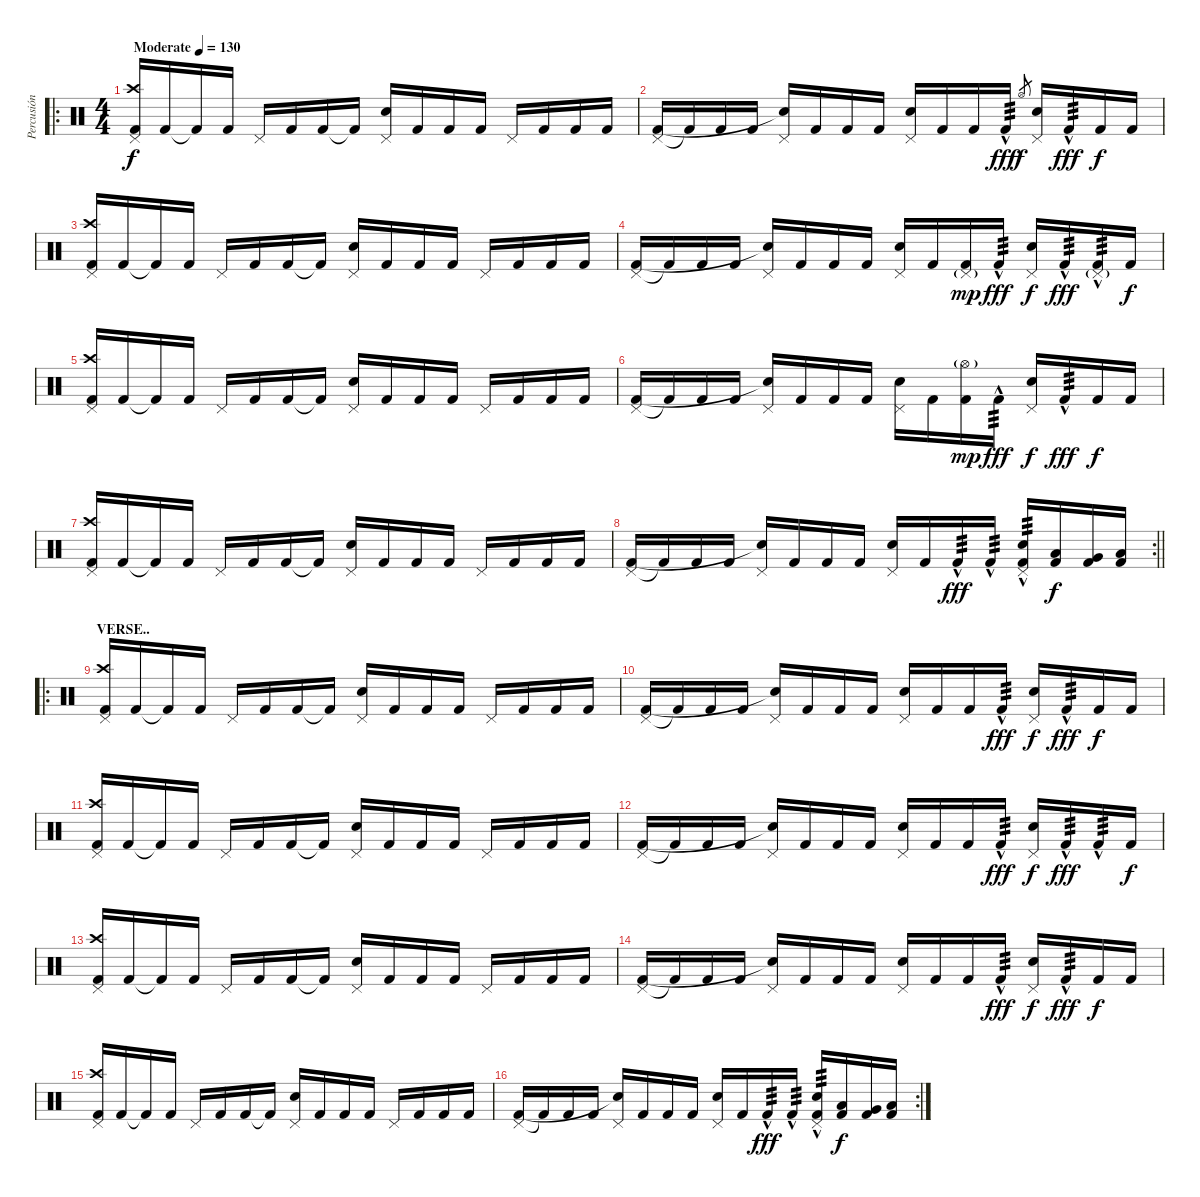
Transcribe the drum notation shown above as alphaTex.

\track ("Percusión" "Percusión") {instrument percussion}
\staff {score}
\articulation defaults
\ro
\ts (4 4)
\tempo (130 "Moderate")
\clef neutral
\ks c
("Pedal Hi-Hat (hit)" "Crash high (hit)" "Kick (hit) 2").16{dy f} "Kick (hit) 2".16 "Kick (hit) 2"{t}.16 "Kick (hit) 2".16 "Pedal Hi-Hat (hit)".16 "Kick (hit) 2".16 "Kick (hit) 2".16 "Kick (hit) 2"{t}.16 ("Pedal Hi-Hat (hit)" "Electric Snare (hit)").16 "Kick (hit) 2".16 "Kick (hit) 2".16 "Kick (hit) 2".16 "Pedal Hi-Hat (hit)".16 "Kick (hit) 2".16 "Kick (hit) 2".16 "Kick (hit) 2".16 |
("Pedal Hi-Hat (hit)" "Kick (hit) 2").16 "Kick (hit) 2"{t}.16 "Kick (hit) 2".16 "Kick (hit) 2".16 ("Pedal Hi-Hat (hit)" "Snare (hit)"{t}).16 "Kick (hit) 2".16 "Kick (hit) 2".16 "Kick (hit) 2".16 ("Pedal Hi-Hat (hit)" "Electric Snare (hit)").16 "Kick (hit) 2".16 "Kick (hit) 2".16 "Kick (hit) 2"{hac}.16{tp 3 dy fff} "Hi-Hat (open)".8{gr dy f} ("Pedal Hi-Hat (hit)" "Electric Snare (hit)").16 "Kick (hit) 2"{hac}.16{tp 3 dy fff} "Kick (hit) 2".16{dy f} "Kick (hit) 2".16 |
("Pedal Hi-Hat (hit)" "Crash high (hit)" "Kick (hit) 2").16 "Kick (hit) 2".16 "Kick (hit) 2"{t}.16 "Kick (hit) 2".16 "Pedal Hi-Hat (hit)".16 "Kick (hit) 2".16 "Kick (hit) 2".16 "Kick (hit) 2"{t}.16 ("Pedal Hi-Hat (hit)" "Electric Snare (hit)").16 "Kick (hit) 2".16 "Kick (hit) 2".16 "Kick (hit) 2".16 "Pedal Hi-Hat (hit)".16 "Kick (hit) 2".16 "Kick (hit) 2".16 "Kick (hit) 2".16 |
("Pedal Hi-Hat (hit)" "Kick (hit) 2").16 "Kick (hit) 2"{t}.16 "Kick (hit) 2".16 "Kick (hit) 2".16 ("Pedal Hi-Hat (hit)" "Snare (hit)"{t}).16 "Kick (hit) 2".16 "Kick (hit) 2".16 "Kick (hit) 2".16 ("Pedal Hi-Hat (hit)" "Electric Snare (hit)").16 "Kick (hit) 2".16 ("Pedal Hi-Hat (hit)"{g} "Kick (hit) 2").16{dy mp} "Kick (hit) 2"{hac}.16{tp 3 dy fff} ("Pedal Hi-Hat (hit)" "Electric Snare (hit)").16{dy f} "Kick (hit) 2"{hac}.16{tp 3 dy fff} ("Pedal Hi-Hat (hit)"{g} "Kick (hit) 2"{hac}).16{tp 3} "Kick (hit) 2".16{dy f} |
("Pedal Hi-Hat (hit)" "Crash high (hit)" "Kick (hit) 2").16 "Kick (hit) 2".16 "Kick (hit) 2"{t}.16 "Kick (hit) 2".16 "Pedal Hi-Hat (hit)".16 "Kick (hit) 2".16 "Kick (hit) 2".16 "Kick (hit) 2"{t}.16 ("Pedal Hi-Hat (hit)" "Electric Snare (hit)").16 "Kick (hit) 2".16 "Kick (hit) 2".16 "Kick (hit) 2".16 "Pedal Hi-Hat (hit)".16 "Kick (hit) 2".16 "Kick (hit) 2".16 "Kick (hit) 2".16 |
("Pedal Hi-Hat (hit)" "Kick (hit) 2").16 "Kick (hit) 2"{t}.16 "Kick (hit) 2".16 "Kick (hit) 2".16 ("Pedal Hi-Hat (hit)" "Snare (hit)"{t}).16 "Kick (hit) 2".16 "Kick (hit) 2".16 "Kick (hit) 2".16 ("Pedal Hi-Hat (hit)" "Electric Snare (hit)").16 "Kick (hit) 2".16 ("Hi-Hat (open)"{g} "Kick (hit) 2").16{dy mp} "Kick (hit) 2"{hac}.16{tp 3 dy fff} ("Pedal Hi-Hat (hit)" "Electric Snare (hit)").16{dy f} "Kick (hit) 2"{hac}.16{tp 3 dy fff} "Kick (hit) 2".16{dy f} "Kick (hit) 2".16 |
("Pedal Hi-Hat (hit)" "Crash high (hit)" "Kick (hit) 2").16 "Kick (hit) 2".16 "Kick (hit) 2"{t}.16 "Kick (hit) 2".16 "Pedal Hi-Hat (hit)".16 "Kick (hit) 2".16 "Kick (hit) 2".16 "Kick (hit) 2"{t}.16 ("Pedal Hi-Hat (hit)" "Electric Snare (hit)").16 "Kick (hit) 2".16 "Kick (hit) 2".16 "Kick (hit) 2".16 "Pedal Hi-Hat (hit)".16 "Kick (hit) 2".16 "Kick (hit) 2".16 "Kick (hit) 2".16 |
\rc 2
\barLineRight lightlight
("Pedal Hi-Hat (hit)" "Kick (hit) 2").16 "Kick (hit) 2"{t}.16 "Kick (hit) 2".16 "Kick (hit) 2".16 ("Pedal Hi-Hat (hit)" "Snare (hit)"{t}).16 "Kick (hit) 2".16 "Kick (hit) 2".16 "Kick (hit) 2".16 ("Pedal Hi-Hat (hit)" "Electric Snare (hit)").16 "Kick (hit) 2".16 "Kick (hit) 2"{hac}.16{tp 3 dy fff} "Kick (hit) 2"{hac}.16{tp 3} ("Pedal Hi-Hat (hit)" "Electric Snare (hit)"{hac} "Kick (hit) 2").16{tp 3} ("Low Tom (hit)" "Kick (hit) 2").16{dy f} ("Very Low Tom (hit)" "Kick (hit) 2").16 ("Low Floor Tom (hit)" "Kick (hit) 2").16 |
\ro
\section ("" "VERSE..")
("Pedal Hi-Hat (hit)" "Crash high (hit)" "Kick (hit) 2").16 "Kick (hit) 2".16 "Kick (hit) 2"{t}.16 "Kick (hit) 2".16 "Pedal Hi-Hat (hit)".16 "Kick (hit) 2".16 "Kick (hit) 2".16 "Kick (hit) 2"{t}.16 ("Pedal Hi-Hat (hit)" "Electric Snare (hit)").16 "Kick (hit) 2".16 "Kick (hit) 2".16 "Kick (hit) 2".16 "Pedal Hi-Hat (hit)".16 "Kick (hit) 2".16 "Kick (hit) 2".16 "Kick (hit) 2".16 |
("Pedal Hi-Hat (hit)" "Kick (hit) 2").16 "Kick (hit) 2"{t}.16 "Kick (hit) 2".16 "Kick (hit) 2".16 ("Pedal Hi-Hat (hit)" "Snare (hit)"{t}).16 "Kick (hit) 2".16 "Kick (hit) 2".16 "Kick (hit) 2".16 ("Pedal Hi-Hat (hit)" "Electric Snare (hit)").16 "Kick (hit) 2".16 "Kick (hit) 2".16 "Kick (hit) 2"{hac}.16{tp 3 dy fff} ("Pedal Hi-Hat (hit)" "Electric Snare (hit)").16{dy f} "Kick (hit) 2"{hac}.16{tp 3 dy fff} "Kick (hit) 2".16{dy f} "Kick (hit) 2".16 |
("Pedal Hi-Hat (hit)" "Crash high (hit)" "Kick (hit) 2").16 "Kick (hit) 2".16 "Kick (hit) 2"{t}.16 "Kick (hit) 2".16 "Pedal Hi-Hat (hit)".16 "Kick (hit) 2".16 "Kick (hit) 2".16 "Kick (hit) 2"{t}.16 ("Pedal Hi-Hat (hit)" "Electric Snare (hit)").16 "Kick (hit) 2".16 "Kick (hit) 2".16 "Kick (hit) 2".16 "Pedal Hi-Hat (hit)".16 "Kick (hit) 2".16 "Kick (hit) 2".16 "Kick (hit) 2".16 |
("Pedal Hi-Hat (hit)" "Kick (hit) 2").16 "Kick (hit) 2"{t}.16 "Kick (hit) 2".16 "Kick (hit) 2".16 ("Pedal Hi-Hat (hit)" "Snare (hit)"{t}).16 "Kick (hit) 2".16 "Kick (hit) 2".16 "Kick (hit) 2".16 ("Pedal Hi-Hat (hit)" "Electric Snare (hit)").16 "Kick (hit) 2".16 "Kick (hit) 2".16 "Kick (hit) 2"{hac}.16{tp 3 dy fff} ("Pedal Hi-Hat (hit)" "Electric Snare (hit)").16{dy f} "Kick (hit) 2"{hac}.16{tp 3 dy fff} "Kick (hit) 2"{hac}.16{tp 3} "Kick (hit) 2".16{dy f} |
("Pedal Hi-Hat (hit)" "Crash high (hit)" "Kick (hit) 2").16 "Kick (hit) 2".16 "Kick (hit) 2"{t}.16 "Kick (hit) 2".16 "Pedal Hi-Hat (hit)".16 "Kick (hit) 2".16 "Kick (hit) 2".16 "Kick (hit) 2"{t}.16 ("Pedal Hi-Hat (hit)" "Electric Snare (hit)").16 "Kick (hit) 2".16 "Kick (hit) 2".16 "Kick (hit) 2".16 "Pedal Hi-Hat (hit)".16 "Kick (hit) 2".16 "Kick (hit) 2".16 "Kick (hit) 2".16 |
("Pedal Hi-Hat (hit)" "Kick (hit) 2").16 "Kick (hit) 2"{t}.16 "Kick (hit) 2".16 "Kick (hit) 2".16 ("Pedal Hi-Hat (hit)" "Snare (hit)"{t}).16 "Kick (hit) 2".16 "Kick (hit) 2".16 "Kick (hit) 2".16 ("Pedal Hi-Hat (hit)" "Electric Snare (hit)").16 "Kick (hit) 2".16 "Kick (hit) 2".16 "Kick (hit) 2"{hac}.16{tp 3 dy fff} ("Pedal Hi-Hat (hit)" "Electric Snare (hit)").16{dy f} "Kick (hit) 2"{hac}.16{tp 3 dy fff} "Kick (hit) 2".16{dy f} "Kick (hit) 2".16 |
("Pedal Hi-Hat (hit)" "Crash high (hit)" "Kick (hit) 2").16 "Kick (hit) 2".16 "Kick (hit) 2"{t}.16 "Kick (hit) 2".16 "Pedal Hi-Hat (hit)".16 "Kick (hit) 2".16 "Kick (hit) 2".16 "Kick (hit) 2"{t}.16 ("Pedal Hi-Hat (hit)" "Electric Snare (hit)").16 "Kick (hit) 2".16 "Kick (hit) 2".16 "Kick (hit) 2".16 "Pedal Hi-Hat (hit)".16 "Kick (hit) 2".16 "Kick (hit) 2".16 "Kick (hit) 2".16 |
\rc 2
("Pedal Hi-Hat (hit)" "Kick (hit) 2").16 "Kick (hit) 2"{t}.16 "Kick (hit) 2".16 "Kick (hit) 2".16 ("Pedal Hi-Hat (hit)" "Snare (hit)"{t}).16 "Kick (hit) 2".16 "Kick (hit) 2".16 "Kick (hit) 2".16 ("Pedal Hi-Hat (hit)" "Electric Snare (hit)").16 "Kick (hit) 2".16 "Kick (hit) 2"{hac}.16{tp 3 dy fff} "Kick (hit) 2"{hac}.16{tp 3} ("Pedal Hi-Hat (hit)" "Electric Snare (hit)"{hac} "Kick (hit) 2").16{tp 3} ("Low Tom (hit)" "Kick (hit) 2").16{dy f} ("Very Low Tom (hit)" "Kick (hit) 2").16 ("Low Floor Tom (hit)" "Kick (hit) 2").16
